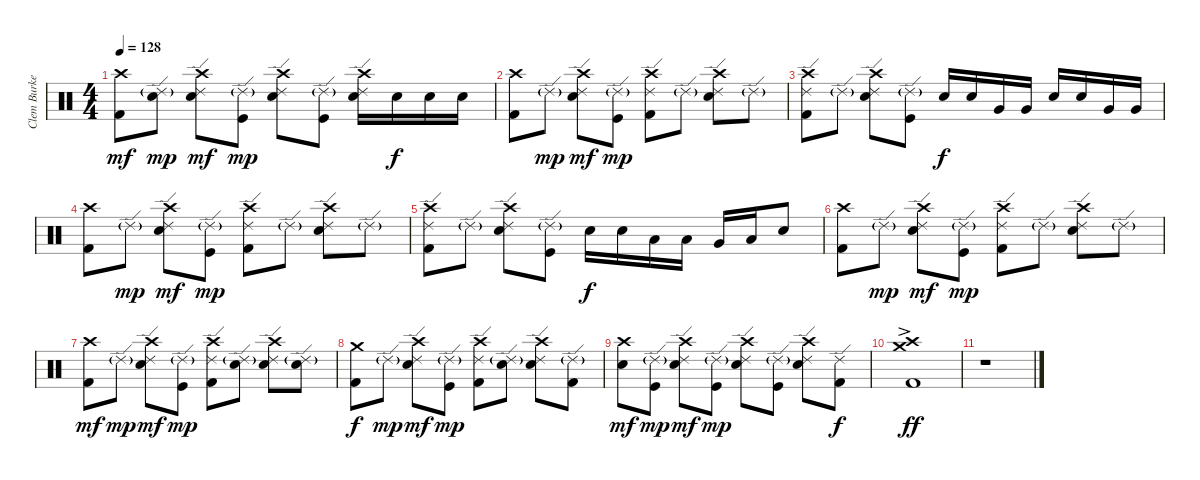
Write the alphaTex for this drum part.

\track ("Clem Burke" "Clem Burke") {instrument percussion}
\staff {score}
\articulation defaults
\ts (4 4)
\tempo 128
\clef neutral
\ks c
("Crash high (hit)" "Kick (hit) 2").8{dy mf} ("Ride (edge) 2"{g} "Electric Snare (hit)").8{dy mp} ("Ride (edge) 2" "Crash high (hit)" "Electric Snare (hit)").8{dy mf} ("Ride (edge) 2"{g} "Kick (hit)").8{dy mp} ("Ride (edge) 2" "Crash high (hit)" "Electric Snare (hit)").8 ("Ride (edge) 2"{g} "Kick (hit)").8 ("Ride (edge) 2" "Crash high (hit)" "Electric Snare (hit)").16 "Electric Snare (hit)".16{dy f} "Electric Snare (hit)".16 "Electric Snare (hit)".16 |
("Crash high (hit)" "Kick (hit) 2").8 "Ride (edge) 2"{g}.8{dy mp} ("Ride (edge) 2" "Crash high (hit)" "Electric Snare (hit)").8{dy mf} ("Ride (edge) 2"{g} "Kick (hit)").8{dy mp} ("Ride (edge) 2" "Crash high (hit)" "Kick (hit) 2").8 "Ride (edge) 2"{g}.8 ("Ride (edge) 2" "Crash high (hit)" "Electric Snare (hit)").8 "Ride (edge) 2"{g}.8 |
("Crash high (hit)" "Ride (edge) 2" "Kick (hit) 2").8 "Ride (edge) 2"{g}.8 ("Ride (edge) 2" "Crash high (hit)" "Electric Snare (hit)").8 ("Ride (edge) 2"{g} "Kick (hit)").8 "Electric Snare (hit)".16{dy f} "Electric Snare (hit)".16 "Very Low Tom (hit)".16 "Very Low Tom (hit)".16 "Electric Snare (hit)".16 "Electric Snare (hit)".16 "Very Low Tom (hit)".16 "Very Low Tom (hit)".16 |
("Crash high (hit)" "Kick (hit) 2").8 "Ride (edge) 2"{g}.8{dy mp} ("Ride (edge) 2" "Crash high (hit)" "Electric Snare (hit)").8{dy mf} ("Ride (edge) 2"{g} "Kick (hit)").8{dy mp} ("Ride (edge) 2" "Crash high (hit)" "Kick (hit) 2").8 "Ride (edge) 2"{g}.8 ("Ride (edge) 2" "Crash high (hit)" "Electric Snare (hit)").8 "Ride (edge) 2"{g}.8 |
("Crash high (hit)" "Ride (edge) 2" "Kick (hit) 2").8 "Ride (edge) 2"{g}.8 ("Ride (edge) 2" "Crash high (hit)" "Electric Snare (hit)").8 ("Ride (edge) 2"{g} "Kick (hit)").8 "Electric Snare (hit)".16{dy f} "Electric Snare (hit)".16 "Low Tom (hit)".16 "Low Tom (hit)".16 "Very Low Tom (hit)".16 "Low Floor Tom (hit)".16 "Electric Snare (hit)".8 |
("Crash high (hit)" "Kick (hit) 2").8 "Ride (edge) 2"{g}.8{dy mp} ("Ride (edge) 2" "Crash high (hit)" "Electric Snare (hit)").8{dy mf} ("Ride (edge) 2"{g} "Kick (hit)").8{dy mp} ("Ride (edge) 2" "Crash high (hit)" "Kick (hit) 2").8 "Ride (edge) 2"{g}.8 ("Ride (edge) 2" "Crash high (hit)" "Electric Snare (hit)").8 "Ride (edge) 2"{g}.8 |
("Crash high (hit)" "Kick (hit) 2").8{dy mf} "Ride (edge) 2"{g}.8{dy mp} ("Ride (edge) 2" "Crash high (hit)" "Electric Snare (hit)").8{dy mf} ("Ride (edge) 2"{g} "Kick (hit)").8{dy mp} ("Ride (edge) 2" "Crash high (hit)" "Kick (hit) 2").8 ("Ride (edge) 2"{g} "Electric Snare (hit)").8 ("Ride (edge) 2" "Crash high (hit)" "Electric Snare (hit)").8 ("Ride (edge) 2"{g} "Electric Snare (hit)").8 |
("Crash medium (hit)" "Kick (hit) 2").8{dy f} "Ride (edge) 2"{g}.8{dy mp} ("Ride (edge) 2" "Crash high (hit)" "Electric Snare (hit)").8{dy mf} ("Ride (edge) 2"{g} "Kick (hit)").8{dy mp} ("Ride (edge) 2" "Crash high (hit)" "Kick (hit) 2").8 ("Ride (edge) 2"{g} "Electric Snare (hit)").8 ("Ride (edge) 2" "Crash high (hit)" "Electric Snare (hit)").8 ("Ride (edge) 2"{g} "Kick (hit) 2").8 |
("Crash high (hit)" "Electric Snare (hit)").8{dy mf} ("Ride (edge) 2"{g} "Kick (hit)").8{dy mp} ("Ride (edge) 2" "Crash high (hit)" "Electric Snare (hit)").8{dy mf} ("Ride (edge) 2"{g} "Kick (hit)").8{dy mp} ("Ride (edge) 2" "Crash high (hit)" "Electric Snare (hit)").8 ("Ride (edge) 2"{g} "Kick (hit)").8 ("Ride (edge) 2" "Crash high (hit)" "Electric Snare (hit)").8 ("Ride (edge) 2" "Kick (hit) 2").8{dy f} |
("Crash medium (hit)"{ac} "Crash high (hit)"{ac} "Kick (hit) 2"{ac}).1{dy ff} |
r.1
